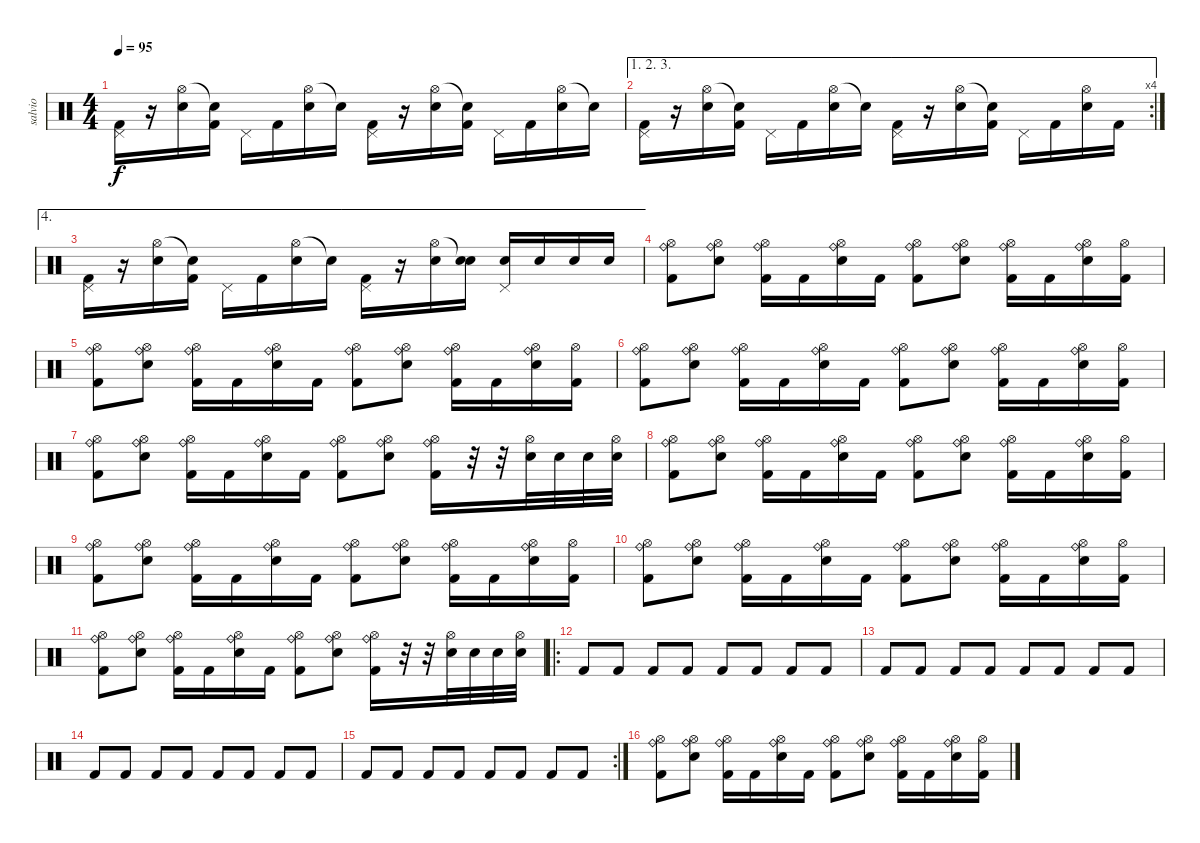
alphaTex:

\track ("salvio" "salvio") {instrument percussion}
\staff {score}
\articulation defaults
\ts (4 4)
\tempo 95
\clef neutral
\ks c
("Pedal Hi-Hat (hit)" "Kick (hit) 2").16{dy f} r.16 ("Hi-Hat (open)" "Snare (hit) 2").16 ("Snare (hit)"{t} "Kick (hit) 2").16 "Pedal Hi-Hat (hit)".16 "Kick (hit) 2".16 ("Hi-Hat (open)" "Snare (hit) 2").16 "Snare (hit)"{t}.16 ("Pedal Hi-Hat (hit)" "Kick (hit) 2").16 r.16 ("Hi-Hat (open)" "Snare (hit) 2").16 ("Snare (hit)"{t} "Kick (hit) 2").16 "Pedal Hi-Hat (hit)".16 "Kick (hit) 2".16 ("Hi-Hat (open)" "Snare (hit) 2").16 "Snare (hit)"{t}.16 |
\ae (1 2 3)
\rc 4
("Pedal Hi-Hat (hit)" "Kick (hit) 2").16 r.16 ("Hi-Hat (open)" "Snare (hit) 2").16 ("Snare (hit)"{t} "Kick (hit) 2").16 "Pedal Hi-Hat (hit)".16 "Kick (hit) 2".16 ("Hi-Hat (open)" "Snare (hit) 2").16 "Snare (hit)"{t}.16 ("Pedal Hi-Hat (hit)" "Kick (hit) 2").16 r.16 ("Hi-Hat (open)" "Snare (hit) 2").16 ("Snare (hit)"{t} "Kick (hit) 2").16 "Pedal Hi-Hat (hit)".16 "Kick (hit) 2".16 ("Hi-Hat (open)" "Snare (hit) 2").16 "Kick (hit) 2".16 |
\ae 4
("Pedal Hi-Hat (hit)" "Kick (hit) 2").16 r.16 ("Hi-Hat (open)" "Snare (hit) 2").16 ("Snare (hit)"{t} "Kick (hit) 2").16 "Pedal Hi-Hat (hit)".16 "Kick (hit) 2".16 ("Hi-Hat (open)" "Snare (hit) 2").16 "Snare (hit)"{t}.16 ("Pedal Hi-Hat (hit)" "Kick (hit) 2").16 r.16 ("Hi-Hat (open)" "Electric Snare (hit)").16 ("Snare (hit)"{t} "Electric Snare (hit)").16 ("Pedal Hi-Hat (hit)" "Snare (hit) 2").16 "Snare (hit) 2".16 "Snare (hit) 2".16 "Snare (hit) 2".16 |
("Ride (bell)" "Kick (hit) 2" "Hi-Hat (open)").8 ("Ride (bell)" "Snare (hit) 2" "Hi-Hat (open)").8 ("Ride (bell)" "Kick (hit) 2" "Hi-Hat (open)").16 "Kick (hit) 2".16 ("Ride (bell)" "Snare (hit) 2" "Hi-Hat (open)").16 "Kick (hit) 2".16 ("Ride (bell)" "Kick (hit) 2" "Hi-Hat (open)").8 ("Ride (bell)" "Snare (hit) 2" "Hi-Hat (open)").8 ("Ride (bell)" "Kick (hit) 2" "Hi-Hat (open)").16 "Kick (hit) 2".16 ("Ride (bell)" "Snare (hit) 2" "Hi-Hat (open)").16 ("Hi-Hat (open)" "Kick (hit) 2").16 |
("Ride (bell)" "Kick (hit) 2" "Hi-Hat (open)").8 ("Ride (bell)" "Snare (hit) 2" "Hi-Hat (open)").8 ("Ride (bell)" "Kick (hit) 2" "Hi-Hat (open)").16 "Kick (hit) 2".16 ("Ride (bell)" "Snare (hit) 2" "Hi-Hat (open)").16 "Kick (hit) 2".16 ("Ride (bell)" "Kick (hit) 2" "Hi-Hat (open)").8 ("Ride (bell)" "Snare (hit) 2" "Hi-Hat (open)").8 ("Ride (bell)" "Kick (hit) 2" "Hi-Hat (open)").16 "Kick (hit) 2".16 ("Ride (bell)" "Snare (hit) 2" "Hi-Hat (open)").16 ("Hi-Hat (open)" "Kick (hit) 2").16 |
("Ride (bell)" "Kick (hit) 2" "Hi-Hat (open)").8 ("Ride (bell)" "Snare (hit) 2" "Hi-Hat (open)").8 ("Ride (bell)" "Kick (hit) 2" "Hi-Hat (open)").16 "Kick (hit) 2".16 ("Ride (bell)" "Snare (hit) 2" "Hi-Hat (open)").16 "Kick (hit) 2".16 ("Ride (bell)" "Kick (hit) 2" "Hi-Hat (open)").8 ("Ride (bell)" "Snare (hit) 2" "Hi-Hat (open)").8 ("Ride (bell)" "Kick (hit) 2" "Hi-Hat (open)").16 "Kick (hit) 2".16 ("Ride (bell)" "Snare (hit) 2" "Hi-Hat (open)").16 ("Hi-Hat (open)" "Kick (hit) 2").16 |
("Ride (bell)" "Kick (hit) 2" "Hi-Hat (open)").8 ("Ride (bell)" "Snare (hit) 2" "Hi-Hat (open)").8 ("Ride (bell)" "Kick (hit) 2" "Hi-Hat (open)").16 "Kick (hit) 2".16 ("Ride (bell)" "Snare (hit) 2" "Hi-Hat (open)").16 "Kick (hit) 2".16 ("Ride (bell)" "Kick (hit) 2" "Hi-Hat (open)").8 ("Ride (bell)" "Snare (hit) 2" "Hi-Hat (open)").8 ("Ride (bell)" "Kick (hit) 2" "Hi-Hat (open)").16 r.32 r.32 ("Hi-Hat (open)" "Snare (hit) 2").32 "Snare (hit) 2".32 "Snare (hit) 2".32 ("Hi-Hat (open)" "Snare (hit) 2").32 |
("Ride (bell)" "Kick (hit) 2" "Hi-Hat (open)").8 ("Ride (bell)" "Snare (hit) 2" "Hi-Hat (open)").8 ("Ride (bell)" "Kick (hit) 2" "Hi-Hat (open)").16 "Kick (hit) 2".16 ("Ride (bell)" "Snare (hit) 2" "Hi-Hat (open)").16 "Kick (hit) 2".16 ("Ride (bell)" "Kick (hit) 2" "Hi-Hat (open)").8 ("Ride (bell)" "Snare (hit) 2" "Hi-Hat (open)").8 ("Ride (bell)" "Kick (hit) 2" "Hi-Hat (open)").16 "Kick (hit) 2".16 ("Ride (bell)" "Snare (hit) 2" "Hi-Hat (open)").16 ("Hi-Hat (open)" "Kick (hit) 2").16 |
("Ride (bell)" "Kick (hit) 2" "Hi-Hat (open)").8 ("Ride (bell)" "Snare (hit) 2" "Hi-Hat (open)").8 ("Ride (bell)" "Kick (hit) 2" "Hi-Hat (open)").16 "Kick (hit) 2".16 ("Ride (bell)" "Snare (hit) 2" "Hi-Hat (open)").16 "Kick (hit) 2".16 ("Ride (bell)" "Kick (hit) 2" "Hi-Hat (open)").8 ("Ride (bell)" "Snare (hit) 2" "Hi-Hat (open)").8 ("Ride (bell)" "Kick (hit) 2" "Hi-Hat (open)").16 "Kick (hit) 2".16 ("Ride (bell)" "Snare (hit) 2" "Hi-Hat (open)").16 ("Hi-Hat (open)" "Kick (hit) 2").16 |
("Ride (bell)" "Kick (hit) 2" "Hi-Hat (open)").8 ("Ride (bell)" "Snare (hit) 2" "Hi-Hat (open)").8 ("Ride (bell)" "Kick (hit) 2" "Hi-Hat (open)").16 "Kick (hit) 2".16 ("Ride (bell)" "Snare (hit) 2" "Hi-Hat (open)").16 "Kick (hit) 2".16 ("Ride (bell)" "Kick (hit) 2" "Hi-Hat (open)").8 ("Ride (bell)" "Snare (hit) 2" "Hi-Hat (open)").8 ("Ride (bell)" "Kick (hit) 2" "Hi-Hat (open)").16 "Kick (hit) 2".16 ("Ride (bell)" "Snare (hit) 2" "Hi-Hat (open)").16 ("Hi-Hat (open)" "Kick (hit) 2").16 |
("Ride (bell)" "Kick (hit) 2" "Hi-Hat (open)").8 ("Ride (bell)" "Snare (hit) 2" "Hi-Hat (open)").8 ("Ride (bell)" "Kick (hit) 2" "Hi-Hat (open)").16 "Kick (hit) 2".16 ("Ride (bell)" "Snare (hit) 2" "Hi-Hat (open)").16 "Kick (hit) 2".16 ("Ride (bell)" "Kick (hit) 2" "Hi-Hat (open)").8 ("Ride (bell)" "Snare (hit) 2" "Hi-Hat (open)").8 ("Ride (bell)" "Kick (hit) 2" "Hi-Hat (open)").16 r.32 r.32 ("Hi-Hat (open)" "Snare (hit) 2").32 "Snare (hit) 2".32 "Snare (hit) 2".32 ("Hi-Hat (open)" "Snare (hit) 2").32 |
\ro "Kick (hit) 2".8 "Kick (hit) 2".8 "Kick (hit) 2".8 "Kick (hit) 2".8 "Kick (hit) 2".8 "Kick (hit) 2".8 "Kick (hit) 2".8 "Kick (hit) 2".8
|
"Kick (hit) 2".8 "Kick (hit) 2".8 "Kick (hit) 2".8 "Kick (hit) 2".8 "Kick (hit) 2".8 "Kick (hit) 2".8 "Kick (hit) 2".8 "Kick (hit) 2".8 |
"Kick (hit) 2".8 "Kick (hit) 2".8 "Kick (hit) 2".8 "Kick (hit) 2".8 "Kick (hit) 2".8 "Kick (hit) 2".8 "Kick (hit) 2".8 "Kick (hit) 2".8 |
\rc 2 "Kick (hit) 2".8 "Kick (hit) 2".8 "Kick (hit) 2".8 "Kick (hit) 2".8 "Kick (hit) 2".8 "Kick (hit) 2".8 "Kick (hit) 2".8 "Kick (hit) 2".8
|
("Ride (bell)" "Kick (hit) 2" "Hi-Hat (open)").8 ("Ride (bell)" "Snare (hit) 2" "Hi-Hat (open)").8 ("Ride (bell)" "Kick (hit) 2" "Hi-Hat (open)").16 "Kick (hit) 2".16 ("Ride (bell)" "Snare (hit) 2" "Hi-Hat (open)").16 "Kick (hit) 2".16 ("Ride (bell)" "Kick (hit) 2" "Hi-Hat (open)").8 ("Ride (bell)" "Snare (hit) 2" "Hi-Hat (open)").8 ("Ride (bell)" "Kick (hit) 2" "Hi-Hat (open)").16 "Kick (hit) 2".16 ("Ride (bell)" "Snare (hit) 2" "Hi-Hat (open)").16 ("Hi-Hat (open)" "Kick (hit) 2").16
